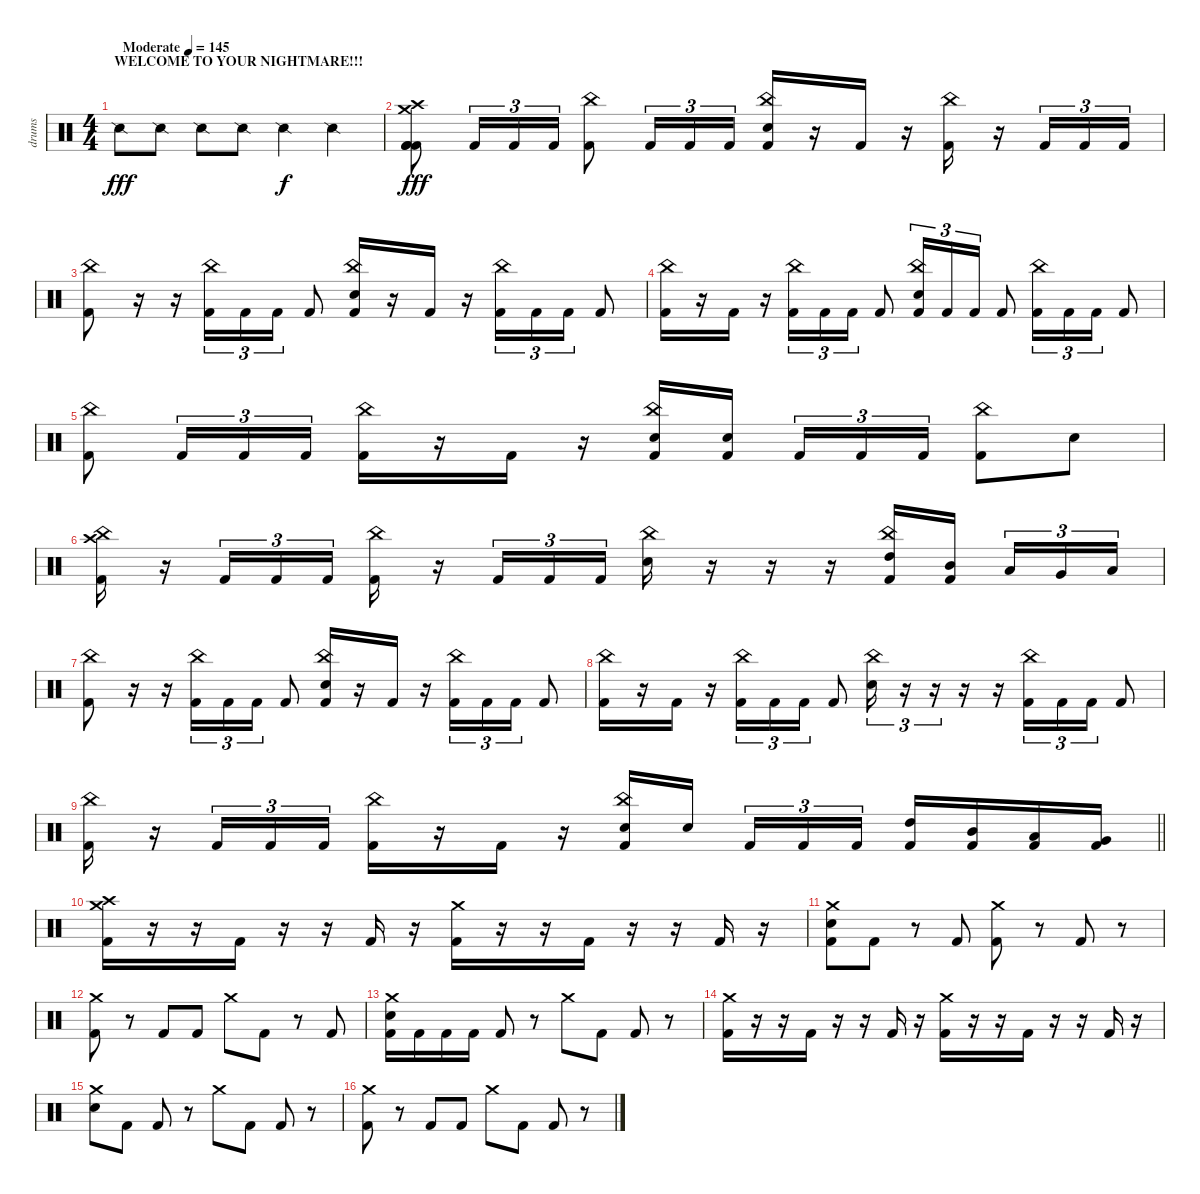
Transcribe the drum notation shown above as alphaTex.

\track ("drums" "drums") {instrument percussion}
\staff {score}
\articulation defaults
\ts (4 4)
\section ("" "WELCOME TO YOUR NIGHTMARE!!!")
\tempo (145 "Moderate")
\clef neutral
\ks c "Snare (side stick) 2".8{dy fff} "Snare (side stick) 2".8 "Snare (side stick) 2".8 "Snare (side stick) 2".8 "Snare (side stick) 2".4{dy f} "Snare (side stick) 2".4
|
("Crash high (hit)" "Crash medium (hit)" "Kick (hit) 2" "Kick (hit) 2" "Kick (hit) 2").8{dy fff} "Kick (hit) 2".16{tu (3 2)} "Kick (hit) 2".16{tu (3 2)} "Kick (hit) 2".16{tu (3 2)} ("China (hit)" "Kick (hit) 2").8 "Kick (hit) 2".16{tu (3 2)} "Kick (hit) 2".16{tu (3 2)} "Kick (hit) 2".16{tu (3 2)} ("China (hit)" "Electric Snare (hit)" "Kick (hit) 2").16 r.16 "Kick (hit) 2".16 r.16 ("China (hit)" "Kick (hit) 2").16 r.16 "Kick (hit) 2".16{tu (3 2)} "Kick (hit) 2".16{tu (3 2)} "Kick (hit) 2".16{tu (3 2)} |
("China (hit)" "Kick (hit) 2").8 r.16 r.16 ("China (hit)" "Kick (hit) 2").16{tu (3 2)} "Kick (hit) 2".16{tu (3 2)} "Kick (hit) 2".16{tu (3 2)} "Kick (hit) 2".8 ("China (hit)" "Electric Snare (hit)" "Kick (hit) 2").16 r.16 "Kick (hit) 2".16 r.16 ("China (hit)" "Kick (hit) 2").16{tu (3 2)} "Kick (hit) 2".16{tu (3 2)} "Kick (hit) 2".16{tu (3 2)} "Kick (hit) 2".8 |
("China (hit)" "Kick (hit) 2").16 r.16 "Kick (hit) 2".16 r.16 ("China (hit)" "Kick (hit) 2").16{tu (3 2)} "Kick (hit) 2".16{tu (3 2)} "Kick (hit) 2".16{tu (3 2)} "Kick (hit) 2".8 ("China (hit)" "Electric Snare (hit)" "Kick (hit) 2").16{tu (3 2)} "Kick (hit) 2".16{tu (3 2)} "Kick (hit) 2".16{tu (3 2)} "Kick (hit) 2".8 ("China (hit)" "Kick (hit) 2").16{tu (3 2)} "Kick (hit) 2".16{tu (3 2)} "Kick (hit) 2".16{tu (3 2)} "Kick (hit) 2".8 |
("China (hit)" "Kick (hit) 2").8 "Kick (hit) 2".16{tu (3 2)} "Kick (hit) 2".16{tu (3 2)} "Kick (hit) 2".16{tu (3 2)} ("China (hit)" "Kick (hit) 2").16 r.16 "Kick (hit) 2".16 r.16 ("China (hit)" "Electric Snare (hit)" "Kick (hit) 2").16 ("Electric Snare (hit)" "Kick (hit) 2").16{beam splitsecondary} "Kick (hit) 2".16{tu (3 2)} "Kick (hit) 2".16{tu (3 2)} "Kick (hit) 2".16{tu (3 2)} ("China (hit)" "Kick (hit) 2").8 "Electric Snare (hit)".8 |
("China (hit)" "Crash high (hit)" "Kick (hit) 2").16 r.16 "Kick (hit) 2".16{tu (3 2)} "Kick (hit) 2".16{tu (3 2)} "Kick (hit) 2".16{tu (3 2)} ("China (hit)" "Kick (hit) 2").16 r.16 "Kick (hit) 2".16{tu (3 2)} "Kick (hit) 2".16{tu (3 2)} "Kick (hit) 2".16{tu (3 2)} ("China (hit)" "Electric Snare (hit)").16 r.16 r.16 r.16 ("China (hit)" "High Tom (hit)" "Kick (hit) 2").16 ("Mid Tom (hit)" "Kick (hit) 2").16{beam splitsecondary} "Low Tom (hit)".16{tu (3 2)} "Very Low Tom (hit)".16{tu (3 2)} "Low Floor Tom (hit)".16{tu (3 2)} |
("China (hit)" "Kick (hit) 2").8 r.16 r.16 ("China (hit)" "Kick (hit) 2").16{tu (3 2)} "Kick (hit) 2".16{tu (3 2)} "Kick (hit) 2".16{tu (3 2)} "Kick (hit) 2".8 ("China (hit)" "Electric Snare (hit)" "Kick (hit) 2").16 r.16 "Kick (hit) 2".16 r.16 ("China (hit)" "Kick (hit) 2").16{tu (3 2)} "Kick (hit) 2".16{tu (3 2)} "Kick (hit) 2".16{tu (3 2)} "Kick (hit) 2".8 |
("China (hit)" "Kick (hit) 2").16 r.16 "Kick (hit) 2".16 r.16 ("China (hit)" "Kick (hit) 2").16{tu (3 2)} "Kick (hit) 2".16{tu (3 2)} "Kick (hit) 2".16{tu (3 2)} "Kick (hit) 2".8 ("China (hit)" "Electric Snare (hit)").16{tu (3 2)} r.16{tu (3 2)} r.16{tu (3 2)} r.16 r.16 ("China (hit)" "Kick (hit) 2").16{tu (3 2)} "Kick (hit) 2".16{tu (3 2)} "Kick (hit) 2".16{tu (3 2)} "Kick (hit) 2".8 |
\barLineRight lightlight
("China (hit)" "Kick (hit) 2").16 r.16 "Kick (hit) 2".16{tu (3 2)} "Kick (hit) 2".16{tu (3 2)} "Kick (hit) 2".16{tu (3 2)} ("China (hit)" "Kick (hit) 2").16 r.16 "Kick (hit) 2".16 r.16 ("China (hit)" "Electric Snare (hit)" "Kick (hit) 2").16 "Electric Snare (hit)".16{beam splitsecondary} "Kick (hit) 2".16{tu (3 2)} "Kick (hit) 2".16{tu (3 2)} "Kick (hit) 2".16{tu (3 2)} ("High Tom (hit)" "Kick (hit) 2").16 ("Mid Tom (hit)" "Kick (hit) 2").16 ("Low Tom (hit)" "Kick (hit) 2").16 ("Very Low Tom (hit)" "Kick (hit) 2").16 |
\section ("" "")
("Crash medium (hit)" "Crash high (hit)" "Kick (hit) 2").16 r.16 r.16 "Kick (hit) 2".16 r.16 r.16 "Kick (hit) 2".16 r.16 ("Crash medium (hit)" "Kick (hit) 2").16 r.16 r.16 "Kick (hit) 2".16 r.16 r.16 "Kick (hit) 2".16 r.16 |
("Crash medium (hit)" "Electric Snare (hit)" "Kick (hit) 2").8 "Kick (hit) 2".8 r.8 "Kick (hit) 2".8 ("Crash medium (hit)" "Kick (hit) 2").8 r.8 "Kick (hit) 2".8 r.8 |
("Crash medium (hit)" "Kick (hit) 2").8 r.8 "Kick (hit) 2".8 "Kick (hit) 2".8 "Crash medium (hit)".8 "Kick (hit) 2".8 r.8 "Kick (hit) 2".8 |
("Crash medium (hit)" "Electric Snare (hit)" "Kick (hit) 2").16 "Kick (hit) 2".16 "Kick (hit) 2".16 "Kick (hit) 2".16 "Kick (hit) 2".8 r.8 "Crash medium (hit)".8 "Kick (hit) 2".8 "Kick (hit) 2".8 r.8 |
("Crash medium (hit)" "Kick (hit) 2").16 r.16 r.16 "Kick (hit) 2".16 r.16 r.16 "Kick (hit) 2".16 r.16 ("Crash medium (hit)" "Kick (hit) 2").16 r.16 r.16 "Kick (hit) 2".16 r.16 r.16 "Kick (hit) 2".16 r.16 |
("Crash medium (hit)" "Electric Snare (hit)").8 "Kick (hit) 2".8 "Kick (hit) 2".8 r.8 "Crash medium (hit)".8 "Kick (hit) 2".8 "Kick (hit) 2".8 r.8 |
("Crash medium (hit)" "Kick (hit) 2").8 r.8 "Kick (hit) 2".8 "Kick (hit) 2".8 "Crash medium (hit)".8 "Kick (hit) 2".8 "Kick (hit) 2".8 r.8
